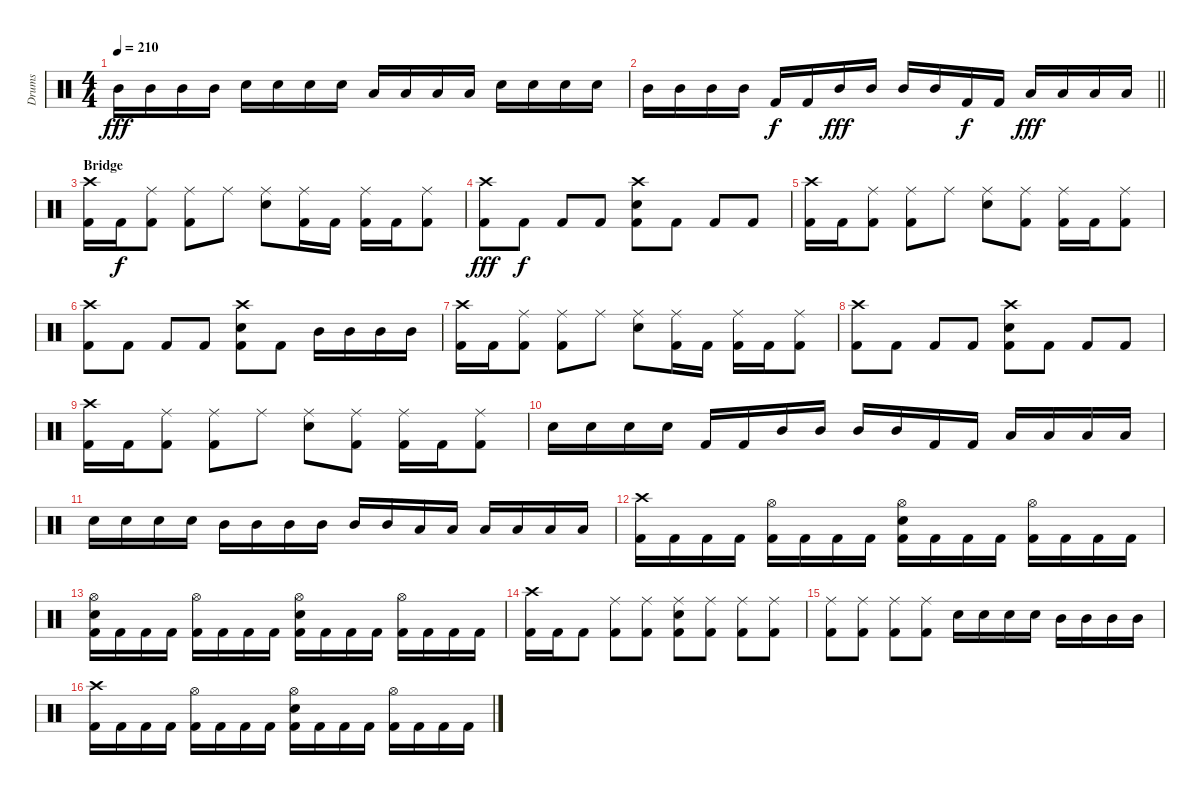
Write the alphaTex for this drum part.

\track ("Drums" "Drums") {instrument percussion}
\staff {score}
\articulation defaults
\ts (4 4)
\tempo 210
\clef neutral
\ks c "Mid Tom (hit)".16{dy fff} "Mid Tom (hit)".16 "Mid Tom (hit)".16 "Mid Tom (hit)".16 "Snare (hit) 2".16 "Snare (hit) 2".16 "Snare (hit) 2".16 "Snare (hit) 2".16 "Low Tom (hit)".16 "Low Tom (hit)".16 "Low Tom (hit)".16 "Low Tom (hit)".16 "Snare (hit) 2".16 "Snare (hit) 2".16 "Snare (hit) 2".16 "Snare (hit) 2".16
|
\barLineRight lightlight "Mid Tom (hit)".16 "Mid Tom (hit)".16 "Mid Tom (hit)".16 "Mid Tom (hit)".16 "Kick (hit) 2".16{dy f} "Kick (hit) 2".16 "Mid Tom (hit)".16{dy fff} "Mid Tom (hit)".16 "Mid Tom (hit)".16 "Mid Tom (hit)".16 "Kick (hit) 2".16{dy f} "Kick (hit) 2".16 "Low Tom (hit)".16{dy fff} "Low Tom (hit)".16 "Low Tom (hit)".16 "Low Tom (hit)".16
|
\section ("" "Bridge")
("Crash high (hit)" "Kick (hit) 2").16 "Kick (hit) 2".16{dy f} ("Ride (middle)" "Kick (hit) 2").8 ("Ride (middle)" "Kick (hit) 2").8 "Ride (middle)".8 ("Ride (middle)" "Snare (hit) 2").8 ("Ride (middle)" "Kick (hit) 2").16 "Kick (hit) 2".16 ("Ride (middle)" "Kick (hit) 2").16 "Kick (hit) 2".16 ("Ride (middle)" "Kick (hit) 2").8 |
("Crash high (hit)" "Kick (hit) 2").8{dy fff} "Kick (hit) 2".8{dy f} "Kick (hit) 2".8 "Kick (hit) 2".8 ("Crash high (hit)" "Snare (hit) 2" "Kick (hit) 2").8 "Kick (hit) 2".8 "Kick (hit) 2".8 "Kick (hit) 2".8 |
("Crash high (hit)" "Kick (hit) 2").16 "Kick (hit) 2".16 ("Ride (middle)" "Kick (hit) 2").8 ("Ride (middle)" "Kick (hit) 2").8 "Ride (middle)".8 ("Ride (middle)" "Snare (hit) 2").8 ("Ride (middle)" "Kick (hit) 2").8 ("Ride (middle)" "Kick (hit) 2").16 "Kick (hit) 2".16 ("Ride (middle)" "Kick (hit) 2").8 |
("Crash high (hit)" "Kick (hit) 2").8 "Kick (hit) 2".8 "Kick (hit) 2".8 "Kick (hit) 2".8 ("Crash high (hit)" "Snare (hit) 2" "Kick (hit) 2").8 "Kick (hit) 2".8 "Mid Tom (hit)".16 "Mid Tom (hit)".16 "Mid Tom (hit)".16 "Mid Tom (hit)".16 |
("Crash high (hit)" "Kick (hit) 2").16 "Kick (hit) 2".16 ("Ride (middle)" "Kick (hit) 2").8 ("Ride (middle)" "Kick (hit) 2").8 "Ride (middle)".8 ("Ride (middle)" "Snare (hit) 2").8 ("Ride (middle)" "Kick (hit) 2").16 "Kick (hit) 2".16 ("Ride (middle)" "Kick (hit) 2").16 "Kick (hit) 2".16 ("Ride (middle)" "Kick (hit) 2").8 |
("Crash high (hit)" "Kick (hit) 2").8 "Kick (hit) 2".8 "Kick (hit) 2".8 "Kick (hit) 2".8 ("Crash high (hit)" "Snare (hit) 2" "Kick (hit) 2").8 "Kick (hit) 2".8 "Kick (hit) 2".8 "Kick (hit) 2".8 |
("Crash high (hit)" "Kick (hit) 2").16 "Kick (hit) 2".16 ("Ride (middle)" "Kick (hit) 2").8 ("Ride (middle)" "Kick (hit) 2").8 "Ride (middle)".8 ("Ride (middle)" "Snare (hit) 2").8 ("Ride (middle)" "Kick (hit) 2").8 ("Ride (middle)" "Kick (hit) 2").16 "Kick (hit) 2".16 ("Ride (middle)" "Kick (hit) 2").8 |
"Snare (hit) 2".16 "Snare (hit) 2".16 "Snare (hit) 2".16 "Snare (hit) 2".16 "Kick (hit) 2".16 "Kick (hit) 2".16 "Mid Tom (hit)".16 "Mid Tom (hit)".16 "Mid Tom (hit)".16 "Mid Tom (hit)".16 "Kick (hit) 2".16 "Kick (hit) 2".16 "Low Tom (hit)".16 "Low Tom (hit)".16 "Low Tom (hit)".16 "Low Tom (hit)".16 |
"Snare (hit) 2".16 "Snare (hit) 2".16 "Snare (hit) 2".16 "Snare (hit) 2".16 "Mid Tom (hit)".16 "Mid Tom (hit)".16 "Mid Tom (hit)".16 "Mid Tom (hit)".16 "Mid Tom (hit)".16 "Mid Tom (hit)".16 "Low Tom (hit)".16 "Low Tom (hit)".16 "Low Tom (hit)".16 "Low Tom (hit)".16 "Low Tom (hit)".16 "Low Tom (hit)".16 |
("Crash high (hit)" "Kick (hit) 2").16 "Kick (hit) 2".16 "Kick (hit) 2".16 "Kick (hit) 2".16 ("Hi-Hat (open)" "Kick (hit) 2").16 "Kick (hit) 2".16 "Kick (hit) 2".16 "Kick (hit) 2".16 ("Hi-Hat (open)" "Snare (hit) 2" "Kick (hit) 2").16 "Kick (hit) 2".16 "Kick (hit) 2".16 "Kick (hit) 2".16 ("Hi-Hat (open)" "Kick (hit) 2").16 "Kick (hit) 2".16 "Kick (hit) 2".16 "Kick (hit) 2".16 |
("Hi-Hat (open)" "Snare (hit) 2" "Kick (hit) 2").16 "Kick (hit) 2".16 "Kick (hit) 2".16 "Kick (hit) 2".16 ("Hi-Hat (open)" "Kick (hit) 2").16 "Kick (hit) 2".16 "Kick (hit) 2".16 "Kick (hit) 2".16 ("Hi-Hat (open)" "Snare (hit) 2" "Kick (hit) 2").16 "Kick (hit) 2".16 "Kick (hit) 2".16 "Kick (hit) 2".16 ("Hi-Hat (open)" "Kick (hit) 2").16 "Kick (hit) 2".16 "Kick (hit) 2".16 "Kick (hit) 2".16 |
("Crash high (hit)" "Kick (hit) 2").16 "Kick (hit) 2".16 "Kick (hit) 2".8 ("Ride (middle)" "Kick (hit) 2").8 ("Ride (middle)" "Kick (hit) 2").8 ("Ride (middle)" "Snare (hit) 2" "Kick (hit) 2").8 ("Ride (middle)" "Kick (hit) 2").8 ("Ride (middle)" "Kick (hit) 2").8 ("Ride (middle)" "Kick (hit) 2").8 |
("Ride (middle)" "Kick (hit) 2").8 ("Ride (middle)" "Kick (hit) 2").8 ("Ride (middle)" "Kick (hit) 2").8 ("Ride (middle)" "Kick (hit) 2").8 "Snare (hit) 2".16 "Snare (hit) 2".16 "Snare (hit) 2".16 "Snare (hit) 2".16 "Mid Tom (hit)".16 "Mid Tom (hit)".16 "Mid Tom (hit)".16 "Mid Tom (hit)".16 |
("Crash high (hit)" "Kick (hit) 2").16 "Kick (hit) 2".16 "Kick (hit) 2".16 "Kick (hit) 2".16 ("Hi-Hat (open)" "Kick (hit) 2").16 "Kick (hit) 2".16 "Kick (hit) 2".16 "Kick (hit) 2".16 ("Hi-Hat (open)" "Snare (hit) 2" "Kick (hit) 2").16 "Kick (hit) 2".16 "Kick (hit) 2".16 "Kick (hit) 2".16 ("Hi-Hat (open)" "Kick (hit) 2").16 "Kick (hit) 2".16 "Kick (hit) 2".16 "Kick (hit) 2".16
